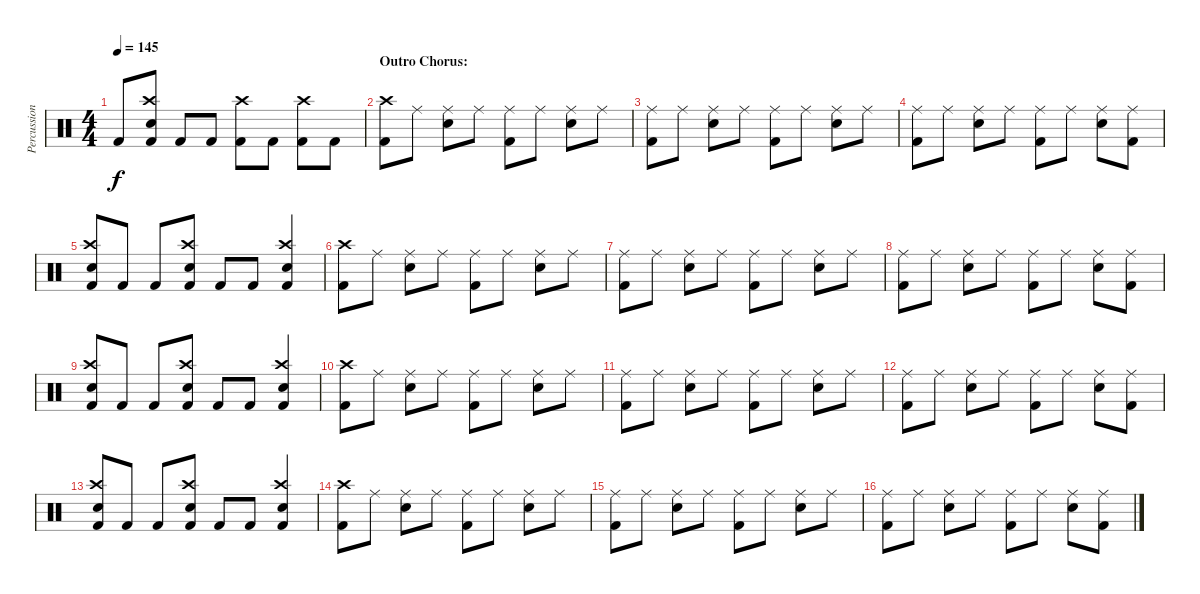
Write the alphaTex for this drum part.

\track ("Percussion" "Percussion") {instrument percussion}
\staff {score}
\articulation defaults
\ts (4 4)
\tempo 145
\clef neutral
\ks c "Kick (hit) 2".8{dy f}
("Crash high (hit)" "Electric Snare (hit)" "Kick (hit) 2").8 "Kick (hit) 2".8 "Kick (hit) 2".8 ("Crash high (hit)" "Kick (hit) 2").8 "Kick (hit) 2".8 ("Crash high (hit)" "Kick (hit) 2").8 "Kick (hit) 2".8 |
\section ("" "Outro Chorus:")
("Crash high (hit)" "Kick (hit) 2").8 "Ride (middle)".8 ("Ride (middle)" "Electric Snare (hit)").8 "Ride (middle)".8 ("Ride (middle)" "Kick (hit) 2").8 "Ride (middle)".8 ("Ride (middle)" "Electric Snare (hit)").8 "Ride (middle)".8 |
("Ride (middle)" "Kick (hit) 2").8 "Ride (middle)".8 ("Ride (middle)" "Electric Snare (hit)").8 "Ride (middle)".8 ("Ride (middle)" "Kick (hit) 2").8 "Ride (middle)".8 ("Ride (middle)" "Electric Snare (hit)").8 "Ride (middle)".8 |
("Ride (middle)" "Kick (hit) 2").8 "Ride (middle)".8 ("Ride (middle)" "Electric Snare (hit)").8 "Ride (middle)".8 ("Ride (middle)" "Kick (hit) 2").8 "Ride (middle)".8 ("Ride (middle)" "Electric Snare (hit)").8 ("Ride (middle)" "Kick (hit) 2").8 |
("Crash high (hit)" "Electric Snare (hit)" "Kick (hit) 2").8 "Kick (hit) 2".8 "Kick (hit) 2".8 ("Crash high (hit)" "Electric Snare (hit)" "Kick (hit) 2").8 "Kick (hit) 2".8 "Kick (hit) 2".8 ("Crash high (hit)" "Electric Snare (hit)" "Kick (hit) 2").4 |
("Crash high (hit)" "Kick (hit) 2").8 "Ride (middle)".8 ("Ride (middle)" "Electric Snare (hit)").8 "Ride (middle)".8 ("Ride (middle)" "Kick (hit) 2").8 "Ride (middle)".8 ("Ride (middle)" "Electric Snare (hit)").8 "Ride (middle)".8 |
("Ride (middle)" "Kick (hit) 2").8 "Ride (middle)".8 ("Ride (middle)" "Electric Snare (hit)").8 "Ride (middle)".8 ("Ride (middle)" "Kick (hit) 2").8 "Ride (middle)".8 ("Ride (middle)" "Electric Snare (hit)").8 "Ride (middle)".8 |
("Ride (middle)" "Kick (hit) 2").8 "Ride (middle)".8 ("Ride (middle)" "Electric Snare (hit)").8 "Ride (middle)".8 ("Ride (middle)" "Kick (hit) 2").8 "Ride (middle)".8 ("Ride (middle)" "Electric Snare (hit)").8 ("Ride (middle)" "Kick (hit) 2").8 |
("Crash high (hit)" "Electric Snare (hit)" "Kick (hit) 2").8 "Kick (hit) 2".8 "Kick (hit) 2".8 ("Crash high (hit)" "Electric Snare (hit)" "Kick (hit) 2").8 "Kick (hit) 2".8 "Kick (hit) 2".8 ("Crash high (hit)" "Electric Snare (hit)" "Kick (hit) 2").4 |
("Crash high (hit)" "Kick (hit) 2").8 "Ride (middle)".8 ("Ride (middle)" "Electric Snare (hit)").8 "Ride (middle)".8 ("Ride (middle)" "Kick (hit) 2").8 "Ride (middle)".8 ("Ride (middle)" "Electric Snare (hit)").8 "Ride (middle)".8 |
("Ride (middle)" "Kick (hit) 2").8 "Ride (middle)".8 ("Ride (middle)" "Electric Snare (hit)").8 "Ride (middle)".8 ("Ride (middle)" "Kick (hit) 2").8 "Ride (middle)".8 ("Ride (middle)" "Electric Snare (hit)").8 "Ride (middle)".8 |
("Ride (middle)" "Kick (hit) 2").8 "Ride (middle)".8 ("Ride (middle)" "Electric Snare (hit)").8 "Ride (middle)".8 ("Ride (middle)" "Kick (hit) 2").8 "Ride (middle)".8 ("Ride (middle)" "Electric Snare (hit)").8 ("Ride (middle)" "Kick (hit) 2").8 |
("Crash high (hit)" "Electric Snare (hit)" "Kick (hit) 2").8 "Kick (hit) 2".8 "Kick (hit) 2".8 ("Crash high (hit)" "Electric Snare (hit)" "Kick (hit) 2").8 "Kick (hit) 2".8 "Kick (hit) 2".8 ("Crash high (hit)" "Electric Snare (hit)" "Kick (hit) 2").4 |
("Crash high (hit)" "Kick (hit) 2").8 "Ride (middle)".8 ("Ride (middle)" "Electric Snare (hit)").8 "Ride (middle)".8 ("Ride (middle)" "Kick (hit) 2").8 "Ride (middle)".8 ("Ride (middle)" "Electric Snare (hit)").8 "Ride (middle)".8 |
("Ride (middle)" "Kick (hit) 2").8 "Ride (middle)".8 ("Ride (middle)" "Electric Snare (hit)").8 "Ride (middle)".8 ("Ride (middle)" "Kick (hit) 2").8 "Ride (middle)".8 ("Ride (middle)" "Electric Snare (hit)").8 "Ride (middle)".8 |
("Ride (middle)" "Kick (hit) 2").8 "Ride (middle)".8 ("Ride (middle)" "Electric Snare (hit)").8 "Ride (middle)".8 ("Ride (middle)" "Kick (hit) 2").8 "Ride (middle)".8 ("Ride (middle)" "Electric Snare (hit)").8 ("Ride (middle)" "Kick (hit) 2").8
